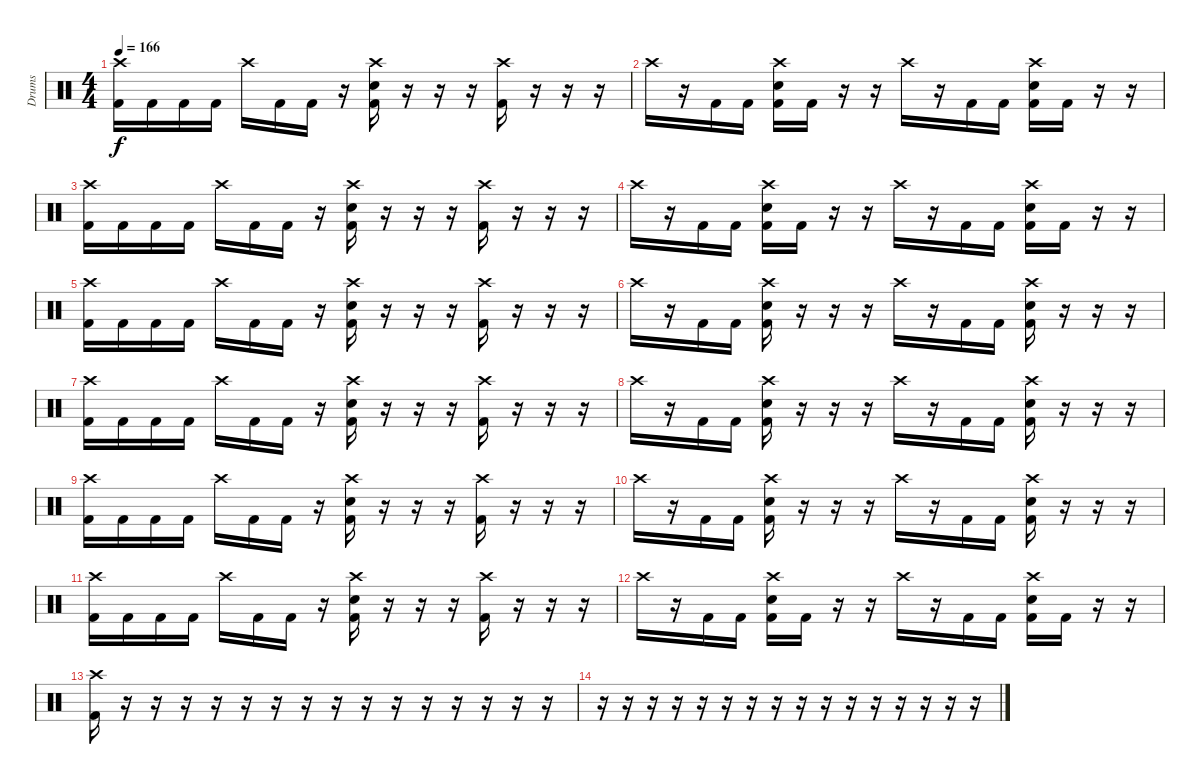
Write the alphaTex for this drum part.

\track ("Drums" "Drums") {instrument percussion}
\staff {score}
\articulation defaults
\ts (4 4)
\tempo 166
\clef neutral
\ks c
("Crash high (hit)" "Kick (hit) 2").16{dy f} "Kick (hit) 2".16 "Kick (hit) 2".16 "Kick (hit) 2".16 "Crash high (hit)".16 "Kick (hit) 2".16 "Kick (hit) 2".16 r.16 ("Crash high (hit)" "Electric Snare (hit)" "Kick (hit) 2").16 r.16 r.16 r.16 ("Crash high (hit)" "Kick (hit) 2").16 r.16 r.16 r.16 |
"Crash high (hit)".16 r.16 "Kick (hit) 2".16 "Kick (hit) 2".16 ("Crash high (hit)" "Electric Snare (hit)" "Kick (hit) 2").16 "Kick (hit) 2".16 r.16 r.16 "Crash high (hit)".16 r.16 "Kick (hit) 2".16 "Kick (hit) 2".16 ("Crash high (hit)" "Electric Snare (hit)" "Kick (hit) 2").16 "Kick (hit) 2".16 r.16 r.16 |
("Crash high (hit)" "Kick (hit) 2").16 "Kick (hit) 2".16 "Kick (hit) 2".16 "Kick (hit) 2".16 "Crash high (hit)".16 "Kick (hit) 2".16 "Kick (hit) 2".16 r.16 ("Crash high (hit)" "Electric Snare (hit)" "Kick (hit) 2").16 r.16 r.16 r.16 ("Crash high (hit)" "Kick (hit) 2").16 r.16 r.16 r.16 |
"Crash high (hit)".16 r.16 "Kick (hit) 2".16 "Kick (hit) 2".16 ("Crash high (hit)" "Electric Snare (hit)" "Kick (hit) 2").16 "Kick (hit) 2".16 r.16 r.16 "Crash high (hit)".16 r.16 "Kick (hit) 2".16 "Kick (hit) 2".16 ("Crash high (hit)" "Electric Snare (hit)" "Kick (hit) 2").16 "Kick (hit) 2".16 r.16 r.16 |
("Crash high (hit)" "Kick (hit) 2").16 "Kick (hit) 2".16 "Kick (hit) 2".16 "Kick (hit) 2".16 "Crash high (hit)".16 "Kick (hit) 2".16 "Kick (hit) 2".16 r.16 ("Crash high (hit)" "Electric Snare (hit)" "Kick (hit) 2").16 r.16 r.16 r.16 ("Crash high (hit)" "Kick (hit) 2").16 r.16 r.16 r.16 |
"Crash high (hit)".16 r.16 "Kick (hit) 2".16 "Kick (hit) 2".16 ("Crash high (hit)" "Electric Snare (hit)" "Kick (hit) 2").16 r.16 r.16 r.16 "Crash high (hit)".16 r.16 "Kick (hit) 2".16 "Kick (hit) 2".16 ("Crash high (hit)" "Electric Snare (hit)" "Kick (hit) 2").16 r.16 r.16 r.16 |
("Crash high (hit)" "Kick (hit) 2").16 "Kick (hit) 2".16 "Kick (hit) 2".16 "Kick (hit) 2".16 "Crash high (hit)".16 "Kick (hit) 2".16 "Kick (hit) 2".16 r.16 ("Crash high (hit)" "Electric Snare (hit)" "Kick (hit) 2").16 r.16 r.16 r.16 ("Crash high (hit)" "Kick (hit) 2").16 r.16 r.16 r.16 |
"Crash high (hit)".16 r.16 "Kick (hit) 2".16 "Kick (hit) 2".16 ("Crash high (hit)" "Electric Snare (hit)" "Kick (hit) 2").16 r.16 r.16 r.16 "Crash high (hit)".16 r.16 "Kick (hit) 2".16 "Kick (hit) 2".16 ("Crash high (hit)" "Electric Snare (hit)" "Kick (hit) 2").16 r.16 r.16 r.16 |
("Crash high (hit)" "Kick (hit) 2").16 "Kick (hit) 2".16 "Kick (hit) 2".16 "Kick (hit) 2".16 "Crash high (hit)".16 "Kick (hit) 2".16 "Kick (hit) 2".16 r.16 ("Crash high (hit)" "Electric Snare (hit)" "Kick (hit) 2").16 r.16 r.16 r.16 ("Crash high (hit)" "Kick (hit) 2").16 r.16 r.16 r.16 |
"Crash high (hit)".16 r.16 "Kick (hit) 2".16 "Kick (hit) 2".16 ("Crash high (hit)" "Electric Snare (hit)" "Kick (hit) 2").16 r.16 r.16 r.16 "Crash high (hit)".16 r.16 "Kick (hit) 2".16 "Kick (hit) 2".16 ("Crash high (hit)" "Electric Snare (hit)" "Kick (hit) 2").16 r.16 r.16 r.16 |
("Crash high (hit)" "Kick (hit) 2").16 "Kick (hit) 2".16 "Kick (hit) 2".16 "Kick (hit) 2".16 "Crash high (hit)".16 "Kick (hit) 2".16 "Kick (hit) 2".16 r.16 ("Crash high (hit)" "Electric Snare (hit)" "Kick (hit) 2").16 r.16 r.16 r.16 ("Crash high (hit)" "Kick (hit) 2").16 r.16 r.16 r.16 |
"Crash high (hit)".16 r.16 "Kick (hit) 2".16 "Kick (hit) 2".16 ("Crash high (hit)" "Electric Snare (hit)" "Kick (hit) 2").16 "Kick (hit) 2".16 r.16 r.16 "Crash high (hit)".16 r.16 "Kick (hit) 2".16 "Kick (hit) 2".16 ("Crash high (hit)" "Electric Snare (hit)" "Kick (hit) 2").16 "Kick (hit) 2".16 r.16 r.16 |
("Crash high (hit)" "Kick (hit) 2").16 r.16 r.16 r.16 r.16 r.16 r.16 r.16 r.16 r.16 r.16 r.16 r.16 r.16 r.16 r.16 |
r.16 r.16 r.16 r.16 r.16 r.16 r.16 r.16 r.16 r.16 r.16 r.16 r.16 r.16 r.16 r.16
